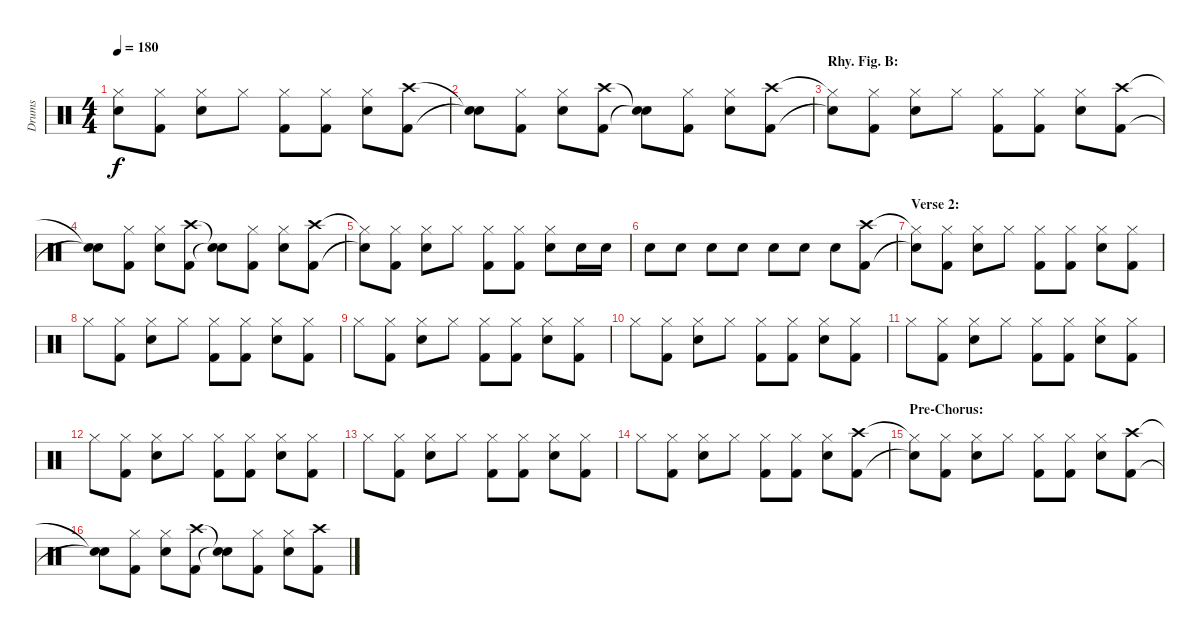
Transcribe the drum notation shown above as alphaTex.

\track ("Drums" "Drums") {instrument percussion}
\staff {score}
\articulation defaults
\ts (4 4)
\tempo 180
\clef neutral
\ks c
("Hi-Hat (closed)"{t} "Snare (hit)"{t}).8{dy f} ("Hi-Hat (closed)" "Kick (hit) 2").8 ("Hi-Hat (closed)" "Snare (hit) 2").8 "Hi-Hat (closed)".8 ("Hi-Hat (closed)" "Kick (hit) 2").8 ("Hi-Hat (closed)" "Kick (hit) 2").8 ("Hi-Hat (closed)" "Snare (hit) 2").8 ("Crash high (hit)" "Kick (hit) 2").8 |
("Snare (hit)"{t} "Snare (hit)"{t}).8 ("Hi-Hat (closed)" "Kick (hit) 2").8 ("Hi-Hat (closed)" "Snare (hit) 2").8 ("Crash high (hit)" "Kick (hit) 2").8 ("Snare (hit)"{t} "Snare (hit)"{t}).8 ("Hi-Hat (closed)" "Kick (hit) 2").8 ("Hi-Hat (closed)" "Snare (hit) 2").8 ("Crash high (hit)" "Kick (hit) 2").8 |
\section ("" "Rhy. Fig. B:")
("Hi-Hat (closed)"{t} "Snare (hit)"{t}).8 ("Hi-Hat (closed)" "Kick (hit) 2").8 ("Hi-Hat (closed)" "Snare (hit) 2").8 "Hi-Hat (closed)".8 ("Hi-Hat (closed)" "Kick (hit) 2").8 ("Hi-Hat (closed)" "Kick (hit) 2").8 ("Hi-Hat (closed)" "Snare (hit) 2").8 ("Crash high (hit)" "Kick (hit) 2").8 |
("Snare (hit)"{t} "Snare (hit)"{t}).8 ("Hi-Hat (closed)" "Kick (hit) 2").8 ("Hi-Hat (closed)" "Snare (hit) 2").8 ("Crash high (hit)" "Kick (hit) 2").8 ("Snare (hit)"{t} "Snare (hit)"{t}).8 ("Hi-Hat (closed)" "Kick (hit) 2").8 ("Hi-Hat (closed)" "Snare (hit) 2").8 ("Crash high (hit)" "Kick (hit) 2").8 |
("Hi-Hat (closed)"{t} "Snare (hit)"{t}).8 ("Hi-Hat (closed)" "Kick (hit) 2").8 ("Hi-Hat (closed)" "Snare (hit) 2").8 "Hi-Hat (closed)".8 ("Hi-Hat (closed)" "Kick (hit) 2").8 ("Hi-Hat (closed)" "Kick (hit) 2").8 ("Hi-Hat (closed)" "Snare (hit) 2").8 "Snare (hit) 2".16 "Snare (hit) 2".16 |
"Snare (hit) 2".8 "Snare (hit) 2".8 "Snare (hit) 2".8 "Snare (hit) 2".8 "Snare (hit) 2".8 "Snare (hit) 2".8 "Snare (hit) 2".8 ("Crash high (hit)" "Kick (hit) 2").8 |
\section ("" "Verse 2:")
("Hi-Hat (closed)"{t} "Snare (hit)"{t}).8 ("Hi-Hat (closed)" "Kick (hit) 2").8 ("Hi-Hat (closed)" "Snare (hit) 2").8 "Hi-Hat (closed)".8 ("Hi-Hat (closed)" "Kick (hit) 2").8 ("Hi-Hat (closed)" "Kick (hit) 2").8 ("Hi-Hat (closed)" "Snare (hit) 2").8 ("Hi-Hat (closed)" "Kick (hit) 2").8 |
"Hi-Hat (closed)".8 ("Hi-Hat (closed)" "Kick (hit) 2").8 ("Hi-Hat (closed)" "Snare (hit) 2").8 "Hi-Hat (closed)".8 ("Hi-Hat (closed)" "Kick (hit) 2").8 ("Hi-Hat (closed)" "Kick (hit) 2").8 ("Hi-Hat (closed)" "Snare (hit) 2").8 ("Hi-Hat (closed)" "Kick (hit) 2").8 |
"Hi-Hat (closed)".8 ("Hi-Hat (closed)" "Kick (hit) 2").8 ("Hi-Hat (closed)" "Snare (hit) 2").8 "Hi-Hat (closed)".8 ("Hi-Hat (closed)" "Kick (hit) 2").8 ("Hi-Hat (closed)" "Kick (hit) 2").8 ("Hi-Hat (closed)" "Snare (hit) 2").8 ("Hi-Hat (closed)" "Kick (hit) 2").8 |
"Hi-Hat (closed)".8 ("Hi-Hat (closed)" "Kick (hit) 2").8 ("Hi-Hat (closed)" "Snare (hit) 2").8 "Hi-Hat (closed)".8 ("Hi-Hat (closed)" "Kick (hit) 2").8 ("Hi-Hat (closed)" "Kick (hit) 2").8 ("Hi-Hat (closed)" "Snare (hit) 2").8 ("Hi-Hat (closed)" "Kick (hit) 2").8 |
"Hi-Hat (closed)".8 ("Hi-Hat (closed)" "Kick (hit) 2").8 ("Hi-Hat (closed)" "Snare (hit) 2").8 "Hi-Hat (closed)".8 ("Hi-Hat (closed)" "Kick (hit) 2").8 ("Hi-Hat (closed)" "Kick (hit) 2").8 ("Hi-Hat (closed)" "Snare (hit) 2").8 ("Hi-Hat (closed)" "Kick (hit) 2").8 |
"Hi-Hat (closed)".8 ("Hi-Hat (closed)" "Kick (hit) 2").8 ("Hi-Hat (closed)" "Snare (hit) 2").8 "Hi-Hat (closed)".8 ("Hi-Hat (closed)" "Kick (hit) 2").8 ("Hi-Hat (closed)" "Kick (hit) 2").8 ("Hi-Hat (closed)" "Snare (hit) 2").8 ("Hi-Hat (closed)" "Kick (hit) 2").8 |
"Hi-Hat (closed)".8 ("Hi-Hat (closed)" "Kick (hit) 2").8 ("Hi-Hat (closed)" "Snare (hit) 2").8 "Hi-Hat (closed)".8 ("Hi-Hat (closed)" "Kick (hit) 2").8 ("Hi-Hat (closed)" "Kick (hit) 2").8 ("Hi-Hat (closed)" "Snare (hit) 2").8 ("Hi-Hat (closed)" "Kick (hit) 2").8 |
"Hi-Hat (closed)".8 ("Hi-Hat (closed)" "Kick (hit) 2").8 ("Hi-Hat (closed)" "Snare (hit) 2").8 "Hi-Hat (closed)".8 ("Hi-Hat (closed)" "Kick (hit) 2").8 ("Hi-Hat (closed)" "Kick (hit) 2").8 ("Hi-Hat (closed)" "Snare (hit) 2").8 ("Crash high (hit)" "Kick (hit) 2").8 |
\section ("" "Pre-Chorus:")
("Hi-Hat (closed)"{t} "Snare (hit)"{t}).8 ("Hi-Hat (closed)" "Kick (hit) 2").8 ("Hi-Hat (closed)" "Snare (hit) 2").8 "Hi-Hat (closed)".8 ("Hi-Hat (closed)" "Kick (hit) 2").8 ("Hi-Hat (closed)" "Kick (hit) 2").8 ("Hi-Hat (closed)" "Snare (hit) 2").8 ("Crash high (hit)" "Kick (hit) 2").8 |
("Snare (hit)"{t} "Snare (hit)"{t}).8 ("Hi-Hat (closed)" "Kick (hit) 2").8 ("Hi-Hat (closed)" "Snare (hit) 2").8 ("Crash high (hit)" "Kick (hit) 2").8 ("Snare (hit)"{t} "Snare (hit)"{t}).8 ("Hi-Hat (closed)" "Kick (hit) 2").8 ("Hi-Hat (closed)" "Snare (hit) 2").8 ("Crash high (hit)" "Kick (hit) 2").8
